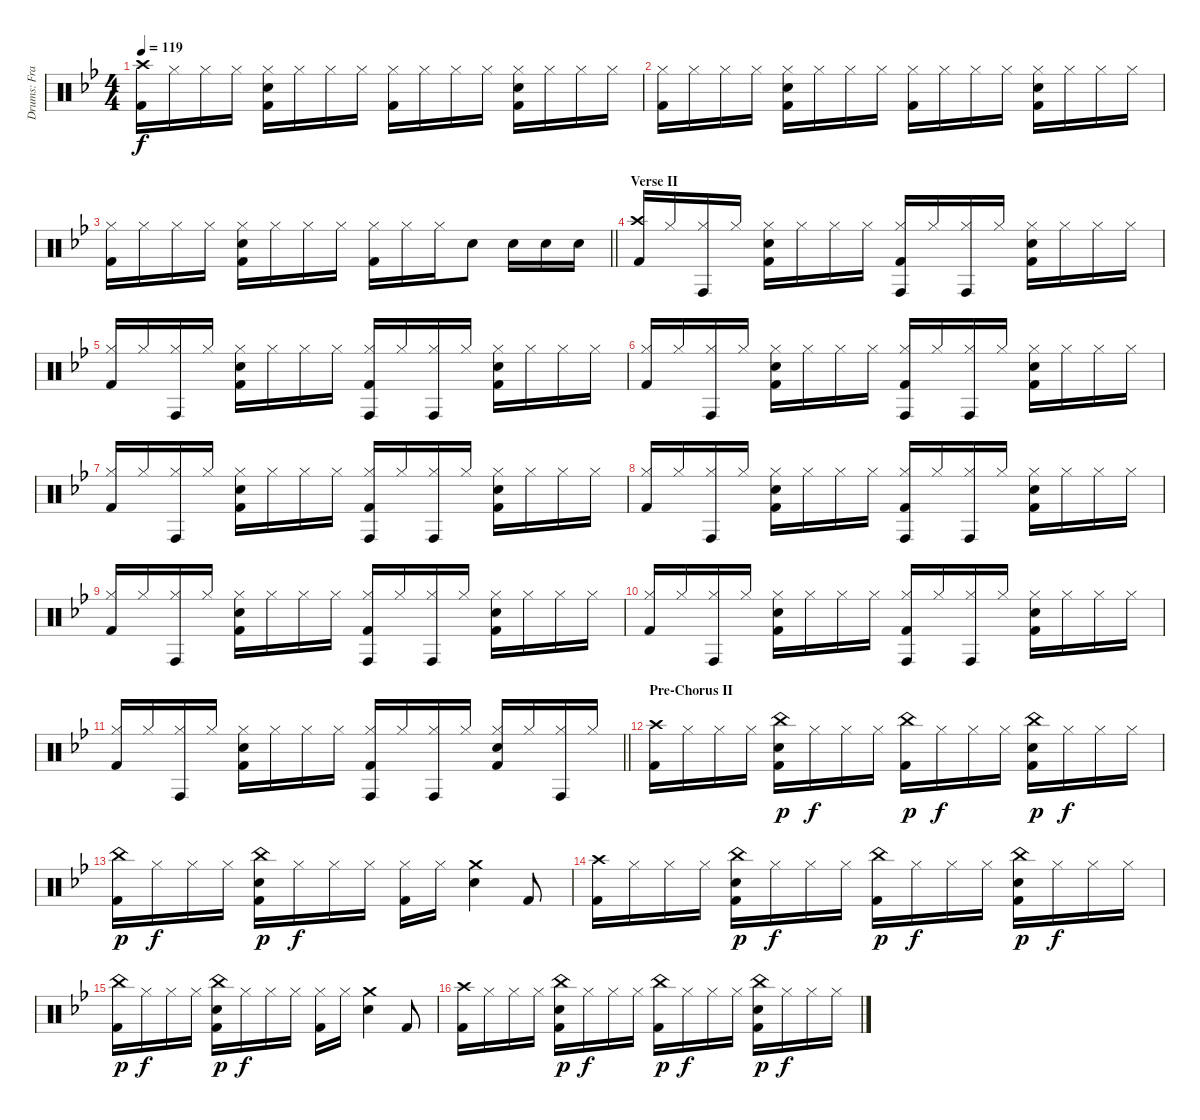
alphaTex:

\track ("Drums: Frank" "Drums: Fra") {instrument percussion}
\staff {score}
\articulation defaults
\ts (4 4)
\tempo 119
\clef neutral
\ks bb
("Crash high (hit)" "Kick (hit) 2").16{dy f} "Hi-Hat (closed)".16 "Hi-Hat (closed)".16 "Hi-Hat (closed)".16 ("Hi-Hat (closed)" "Electric Snare (hit)" "Kick (hit) 2").16 "Hi-Hat (closed)".16 "Hi-Hat (closed)".16 "Hi-Hat (closed)".16 ("Hi-Hat (closed)" "Kick (hit) 2").16 "Hi-Hat (closed)".16 "Hi-Hat (closed)".16 "Hi-Hat (closed)".16 ("Hi-Hat (closed)" "Electric Snare (hit)" "Kick (hit) 2").16 "Hi-Hat (closed)".16 "Hi-Hat (closed)".16 "Hi-Hat (closed)".16 |
("Hi-Hat (closed)" "Kick (hit) 2").16 "Hi-Hat (closed)".16 "Hi-Hat (closed)".16 "Hi-Hat (closed)".16 ("Hi-Hat (closed)" "Snare (hit) 2" "Kick (hit) 2").16 "Hi-Hat (closed)".16 "Hi-Hat (closed)".16 "Hi-Hat (closed)".16 ("Hi-Hat (closed)" "Kick (hit) 2").16 "Hi-Hat (closed)".16 "Hi-Hat (closed)".16 "Hi-Hat (closed)".16 ("Hi-Hat (closed)" "Snare (hit) 2" "Kick (hit) 2").16 "Hi-Hat (closed)".16 "Hi-Hat (closed)".16 "Hi-Hat (closed)".16 |
\barLineRight lightlight
("Hi-Hat (closed)" "Kick (hit) 2").16 "Hi-Hat (closed)".16 "Hi-Hat (closed)".16 "Hi-Hat (closed)".16 ("Hi-Hat (closed)" "Snare (hit) 2" "Kick (hit) 2").16 "Hi-Hat (closed)".16 "Hi-Hat (closed)".16 "Hi-Hat (closed)".16 ("Hi-Hat (closed)" "Kick (hit) 2").16 "Hi-Hat (closed)".16 "Hi-Hat (closed)".16 "Snare (hit) 2".8 "Snare (hit) 2".16 "Snare (hit) 2".16 "Snare (hit) 2".16 |
\section ("" "Verse II")
("Crash high (hit)" "Kick (hit) 2").16 "Hi-Hat (closed)".16 ("Hi-Hat (closed)" "Conga high (hit)").16 "Hi-Hat (closed)".16 ("Hi-Hat (closed)" "Electric Snare (hit)" "Kick (hit) 2").16 "Hi-Hat (closed)".16 "Hi-Hat (closed)".16 "Hi-Hat (closed)".16 ("Hi-Hat (closed)" "Conga high (hit)" "Kick (hit) 2").16 "Hi-Hat (closed)".16 ("Hi-Hat (closed)" "Conga high (hit)").16 "Hi-Hat (closed)".16 ("Hi-Hat (closed)" "Electric Snare (hit)" "Kick (hit) 2").16 "Hi-Hat (closed)".16 "Hi-Hat (closed)".16 "Hi-Hat (closed)".16 |
("Hi-Hat (closed)" "Kick (hit) 2").16 "Hi-Hat (closed)".16 ("Hi-Hat (closed)" "Conga high (hit)").16 "Hi-Hat (closed)".16 ("Hi-Hat (closed)" "Electric Snare (hit)" "Kick (hit) 2").16 "Hi-Hat (closed)".16 "Hi-Hat (closed)".16 "Hi-Hat (closed)".16 ("Hi-Hat (closed)" "Conga high (hit)" "Kick (hit) 2").16 "Hi-Hat (closed)".16 ("Hi-Hat (closed)" "Conga high (hit)").16 "Hi-Hat (closed)".16 ("Hi-Hat (closed)" "Electric Snare (hit)" "Kick (hit) 2").16 "Hi-Hat (closed)".16 "Hi-Hat (closed)".16 "Hi-Hat (closed)".16 |
("Hi-Hat (closed)" "Kick (hit) 2").16 "Hi-Hat (closed)".16 ("Hi-Hat (closed)" "Conga high (hit)").16 "Hi-Hat (closed)".16 ("Hi-Hat (closed)" "Electric Snare (hit)" "Kick (hit) 2").16 "Hi-Hat (closed)".16 "Hi-Hat (closed)".16 "Hi-Hat (closed)".16 ("Hi-Hat (closed)" "Conga high (hit)" "Kick (hit) 2").16 "Hi-Hat (closed)".16 ("Hi-Hat (closed)" "Conga high (hit)").16 "Hi-Hat (closed)".16 ("Hi-Hat (closed)" "Electric Snare (hit)" "Kick (hit) 2").16 "Hi-Hat (closed)".16 "Hi-Hat (closed)".16 "Hi-Hat (closed)".16 |
("Hi-Hat (closed)" "Kick (hit) 2").16 "Hi-Hat (closed)".16 ("Hi-Hat (closed)" "Conga high (hit)").16 "Hi-Hat (closed)".16 ("Hi-Hat (closed)" "Electric Snare (hit)" "Kick (hit) 2").16 "Hi-Hat (closed)".16 "Hi-Hat (closed)".16 "Hi-Hat (closed)".16 ("Hi-Hat (closed)" "Conga high (hit)" "Kick (hit) 2").16 "Hi-Hat (closed)".16 ("Hi-Hat (closed)" "Conga high (hit)").16 "Hi-Hat (closed)".16 ("Hi-Hat (closed)" "Electric Snare (hit)" "Kick (hit) 2").16 "Hi-Hat (closed)".16 "Hi-Hat (closed)".16 "Hi-Hat (closed)".16 |
("Hi-Hat (closed)" "Kick (hit) 2").16 "Hi-Hat (closed)".16 ("Hi-Hat (closed)" "Conga high (hit)").16 "Hi-Hat (closed)".16 ("Hi-Hat (closed)" "Electric Snare (hit)" "Kick (hit) 2").16 "Hi-Hat (closed)".16 "Hi-Hat (closed)".16 "Hi-Hat (closed)".16 ("Hi-Hat (closed)" "Conga high (hit)" "Kick (hit) 2").16 "Hi-Hat (closed)".16 ("Hi-Hat (closed)" "Conga high (hit)").16 "Hi-Hat (closed)".16 ("Hi-Hat (closed)" "Electric Snare (hit)" "Kick (hit) 2").16 "Hi-Hat (closed)".16 "Hi-Hat (closed)".16 "Hi-Hat (closed)".16 |
("Hi-Hat (closed)" "Kick (hit) 2").16 "Hi-Hat (closed)".16 ("Hi-Hat (closed)" "Conga high (hit)").16 "Hi-Hat (closed)".16 ("Hi-Hat (closed)" "Electric Snare (hit)" "Kick (hit) 2").16 "Hi-Hat (closed)".16 "Hi-Hat (closed)".16 "Hi-Hat (closed)".16 ("Hi-Hat (closed)" "Conga high (hit)" "Kick (hit) 2").16 "Hi-Hat (closed)".16 ("Hi-Hat (closed)" "Conga high (hit)").16 "Hi-Hat (closed)".16 ("Hi-Hat (closed)" "Electric Snare (hit)" "Kick (hit) 2").16 "Hi-Hat (closed)".16 "Hi-Hat (closed)".16 "Hi-Hat (closed)".16 |
("Hi-Hat (closed)" "Kick (hit) 2").16 "Hi-Hat (closed)".16 ("Hi-Hat (closed)" "Conga high (hit)").16 "Hi-Hat (closed)".16 ("Hi-Hat (closed)" "Electric Snare (hit)" "Kick (hit) 2").16 "Hi-Hat (closed)".16 "Hi-Hat (closed)".16 "Hi-Hat (closed)".16 ("Hi-Hat (closed)" "Conga high (hit)" "Kick (hit) 2").16 "Hi-Hat (closed)".16 ("Hi-Hat (closed)" "Conga high (hit)").16 "Hi-Hat (closed)".16 ("Hi-Hat (closed)" "Electric Snare (hit)" "Kick (hit) 2").16 "Hi-Hat (closed)".16 "Hi-Hat (closed)".16 "Hi-Hat (closed)".16 |
\barLineRight lightlight
("Hi-Hat (closed)" "Kick (hit) 2").16 "Hi-Hat (closed)".16 ("Hi-Hat (closed)" "Conga high (hit)").16 "Hi-Hat (closed)".16 ("Hi-Hat (closed)" "Electric Snare (hit)" "Kick (hit) 2").16 "Hi-Hat (closed)".16 "Hi-Hat (closed)".16 "Hi-Hat (closed)".16 ("Hi-Hat (closed)" "Conga high (hit)" "Kick (hit) 2").16 "Hi-Hat (closed)".16 ("Hi-Hat (closed)" "Conga high (hit)").16 "Hi-Hat (closed)".16 ("Hi-Hat (closed)" "Electric Snare (hit)" "Kick (hit) 2").16 "Hi-Hat (closed)".16 ("Hi-Hat (closed)" "Conga high (hit)").16 "Hi-Hat (closed)".16 |
\section ("" "Pre-Chorus II")
("Crash high (hit)" "Kick (hit) 2").16 "Hi-Hat (closed)".16 "Hi-Hat (closed)".16 "Hi-Hat (closed)".16 ("China (hit)" "Electric Snare (hit)" "Kick (hit) 2").16{dy p} "Hi-Hat (closed)".16{dy f} "Hi-Hat (closed)".16 "Hi-Hat (closed)".16 ("China (hit)" "Kick (hit) 2").16{dy p} "Hi-Hat (closed)".16{dy f} "Hi-Hat (closed)".16 "Hi-Hat (closed)".16 ("China (hit)" "Electric Snare (hit)" "Kick (hit) 2").16{dy p} "Hi-Hat (closed)".16{dy f} "Hi-Hat (closed)".16 "Hi-Hat (closed)".16 |
("China (hit)" "Kick (hit) 2").16{dy p} "Hi-Hat (closed)".16{dy f} "Hi-Hat (closed)".16 "Hi-Hat (closed)".16 ("China (hit)" "Electric Snare (hit)" "Kick (hit) 2").16{dy p} "Hi-Hat (closed)".16{dy f} "Hi-Hat (closed)".16 "Hi-Hat (closed)".16 ("Hi-Hat (closed)" "Kick (hit) 2").16 "Hi-Hat (closed)".16 ("Crash medium (hit)" "Electric Snare (hit)").4 "Kick (hit) 2".8 |
("Crash high (hit)" "Kick (hit) 2").16 "Hi-Hat (closed)".16 "Hi-Hat (closed)".16 "Hi-Hat (closed)".16 ("China (hit)" "Electric Snare (hit)" "Kick (hit) 2").16{dy p} "Hi-Hat (closed)".16{dy f} "Hi-Hat (closed)".16 "Hi-Hat (closed)".16 ("China (hit)" "Kick (hit) 2").16{dy p} "Hi-Hat (closed)".16{dy f} "Hi-Hat (closed)".16 "Hi-Hat (closed)".16 ("China (hit)" "Electric Snare (hit)" "Kick (hit) 2").16{dy p} "Hi-Hat (closed)".16{dy f} "Hi-Hat (closed)".16 "Hi-Hat (closed)".16 |
("China (hit)" "Kick (hit) 2").16{dy p} "Hi-Hat (closed)".16{dy f} "Hi-Hat (closed)".16 "Hi-Hat (closed)".16 ("China (hit)" "Electric Snare (hit)" "Kick (hit) 2").16{dy p} "Hi-Hat (closed)".16{dy f} "Hi-Hat (closed)".16 "Hi-Hat (closed)".16 ("Hi-Hat (closed)" "Kick (hit) 2").16 "Hi-Hat (closed)".16 ("Crash medium (hit)" "Electric Snare (hit)").4 "Kick (hit) 2".8 |
("Crash high (hit)" "Kick (hit) 2").16 "Hi-Hat (closed)".16 "Hi-Hat (closed)".16 "Hi-Hat (closed)".16 ("China (hit)" "Electric Snare (hit)" "Kick (hit) 2").16{dy p} "Hi-Hat (closed)".16{dy f} "Hi-Hat (closed)".16 "Hi-Hat (closed)".16 ("China (hit)" "Kick (hit) 2").16{dy p} "Hi-Hat (closed)".16{dy f} "Hi-Hat (closed)".16 "Hi-Hat (closed)".16 ("China (hit)" "Electric Snare (hit)" "Kick (hit) 2").16{dy p} "Hi-Hat (closed)".16{dy f} "Hi-Hat (closed)".16 "Hi-Hat (closed)".16
